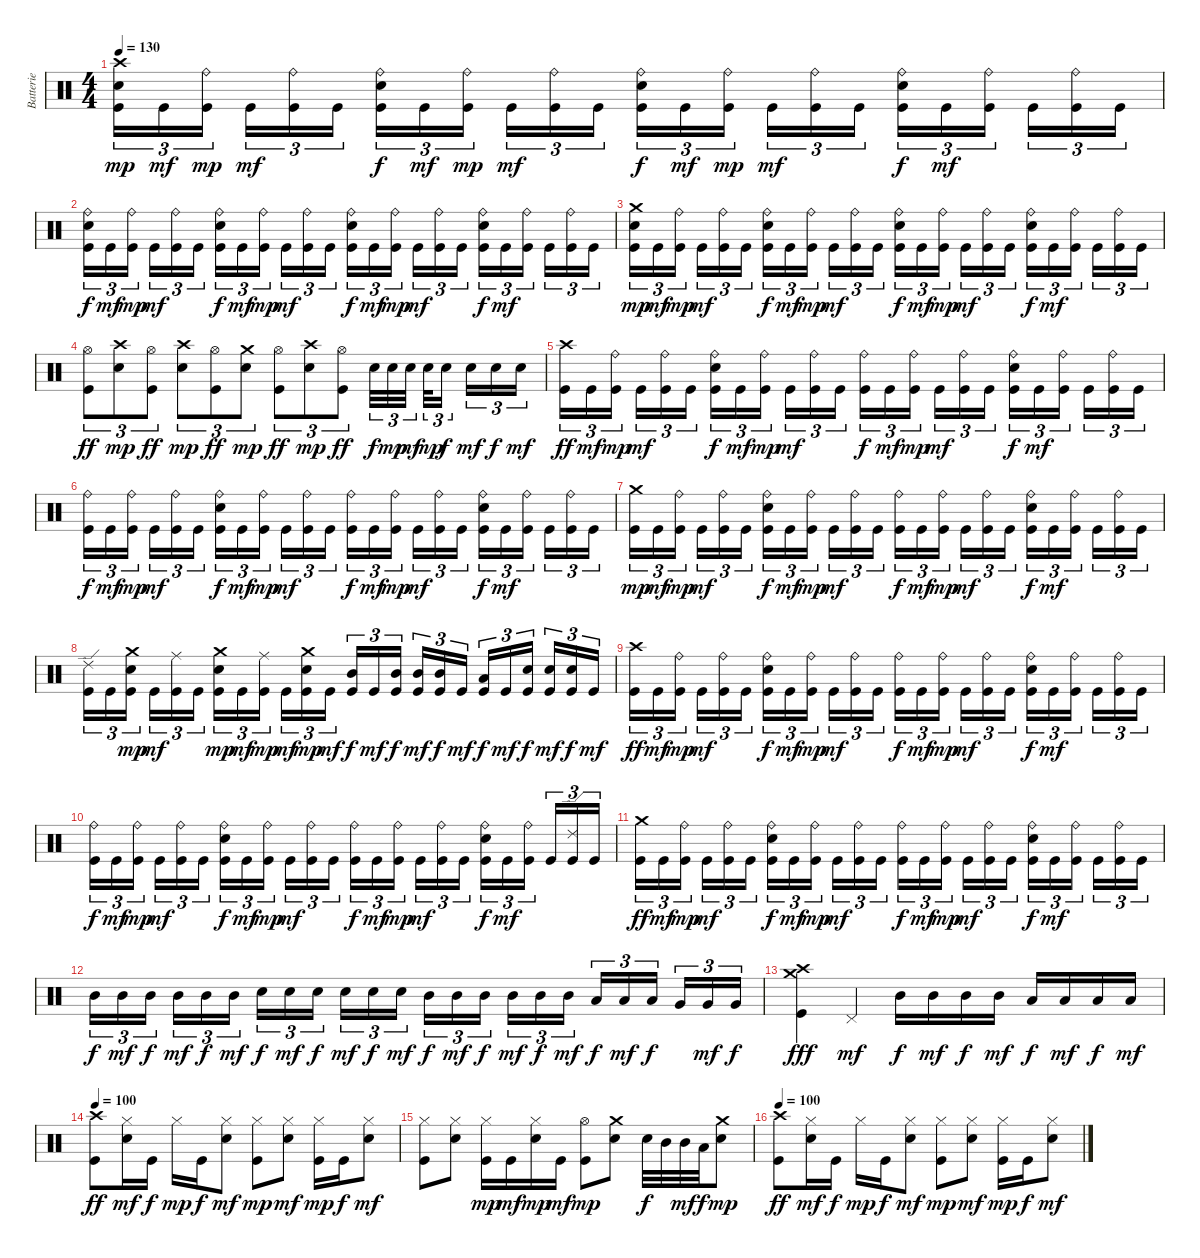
\track ("Batterie" "Batterie") {instrument percussion}
\staff {score}
\articulation defaults
\ts (4 4)
\tempo 130
\clef neutral
\ks c
("Crash high (hit)" "Snare (hit) 2" "Kick (hit)").16{tu (3 2) dy mp} "Kick (hit)".16{tu (3 2) dy mf} ("Ride (bell)" "Kick (hit)").16{tu (3 2) dy mp} "Kick (hit)".16{tu (3 2) dy mf} ("Ride (bell)" "Kick (hit)").16{tu (3 2)} "Kick (hit)".16{tu (3 2)} ("Ride (bell)" "Snare (hit) 2" "Kick (hit)").16{tu (3 2) dy f} "Kick (hit)".16{tu (3 2) dy mf} ("Ride (bell)" "Kick (hit)").16{tu (3 2) dy mp} "Kick (hit)".16{tu (3 2) dy mf} ("Ride (bell)" "Kick (hit)").16{tu (3 2)} "Kick (hit)".16{tu (3 2)} ("Ride (bell)" "Snare (hit) 2" "Kick (hit)").16{tu (3 2) dy f} "Kick (hit)".16{tu (3 2) dy mf} ("Ride (bell)" "Kick (hit)").16{tu (3 2) dy mp} "Kick (hit)".16{tu (3 2) dy mf} ("Ride (bell)" "Kick (hit)").16{tu (3 2)} "Kick (hit)".16{tu (3 2)} ("Ride (bell)" "Snare (hit) 2" "Kick (hit)").16{tu (3 2) dy f} "Kick (hit)".16{tu (3 2) dy mf} ("Ride (bell)" "Kick (hit)").16{tu (3 2)} "Kick (hit)".16{tu (3 2)} ("Ride (bell)" "Kick (hit)").16{tu (3 2)} "Kick (hit)".16{tu (3 2)} |
("Ride (bell)" "Snare (hit) 2" "Kick (hit)").16{tu (3 2) dy f} "Kick (hit)".16{tu (3 2) dy mf} ("Ride (bell)" "Kick (hit)").16{tu (3 2) dy mp} "Kick (hit)".16{tu (3 2) dy mf} ("Ride (bell)" "Kick (hit)").16{tu (3 2)} "Kick (hit)".16{tu (3 2)} ("Ride (bell)" "Snare (hit) 2" "Kick (hit)").16{tu (3 2) dy f} "Kick (hit)".16{tu (3 2) dy mf} ("Ride (bell)" "Kick (hit)").16{tu (3 2) dy mp} "Kick (hit)".16{tu (3 2) dy mf} ("Ride (bell)" "Kick (hit)").16{tu (3 2)} "Kick (hit)".16{tu (3 2)} ("Ride (bell)" "Snare (hit) 2" "Kick (hit)").16{tu (3 2) dy f} "Kick (hit)".16{tu (3 2) dy mf} ("Ride (bell)" "Kick (hit)").16{tu (3 2) dy mp} "Kick (hit)".16{tu (3 2) dy mf} ("Ride (bell)" "Kick (hit)").16{tu (3 2)} "Kick (hit)".16{tu (3 2)} ("Ride (bell)" "Snare (hit) 2" "Kick (hit)").16{tu (3 2) dy f} "Kick (hit)".16{tu (3 2) dy mf} ("Ride (bell)" "Kick (hit)").16{tu (3 2)} "Kick (hit)".16{tu (3 2)} ("Ride (bell)" "Kick (hit)").16{tu (3 2)} "Kick (hit)".16{tu (3 2)} |
("Crash medium (hit)" "Snare (hit) 2" "Kick (hit)").16{tu (3 2) dy mp} "Kick (hit)".16{tu (3 2) dy mf} ("Ride (bell)" "Kick (hit)").16{tu (3 2) dy mp} "Kick (hit)".16{tu (3 2) dy mf} ("Ride (bell)" "Kick (hit)").16{tu (3 2)} "Kick (hit)".16{tu (3 2)} ("Ride (bell)" "Snare (hit) 2" "Kick (hit)").16{tu (3 2) dy f} "Kick (hit)".16{tu (3 2) dy mf} ("Ride (bell)" "Kick (hit)").16{tu (3 2) dy mp} "Kick (hit)".16{tu (3 2) dy mf} ("Ride (bell)" "Kick (hit)").16{tu (3 2)} "Kick (hit)".16{tu (3 2)} ("Ride (bell)" "Snare (hit) 2" "Kick (hit)").16{tu (3 2) dy f} "Kick (hit)".16{tu (3 2) dy mf} ("Ride (bell)" "Kick (hit)").16{tu (3 2) dy mp} "Kick (hit)".16{tu (3 2) dy mf} ("Ride (bell)" "Kick (hit)").16{tu (3 2)} "Kick (hit)".16{tu (3 2)} ("Ride (bell)" "Snare (hit) 2" "Kick (hit)").16{tu (3 2) dy f} "Kick (hit)".16{tu (3 2) dy mf} ("Ride (bell)" "Kick (hit)").16{tu (3 2)} "Kick (hit)".16{tu (3 2)} ("Ride (bell)" "Kick (hit)").16{tu (3 2)} "Kick (hit)".16{tu (3 2)} |
("Hi-Hat (open)" "Kick (hit)").8{tu (3 2) dy ff} ("Crash high (hit)" "Snare (hit) 2").8{tu (3 2) dy mp} ("Hi-Hat (open)" "Kick (hit)").8{tu (3 2) dy ff} ("Crash high (hit)" "Snare (hit) 2").8{tu (3 2) dy mp} ("Hi-Hat (open)" "Kick (hit)").8{tu (3 2) dy ff} ("Crash medium (hit)" "Snare (hit) 2").8{tu (3 2) dy mp} ("Hi-Hat (open)" "Kick (hit)").8{tu (3 2) dy ff} ("Crash high (hit)" "Snare (hit) 2").8{tu (3 2) dy mp} ("Hi-Hat (open)" "Kick (hit)").8{tu (3 2) dy ff} "Snare (hit) 2".32{tu (3 2) dy f} "Snare (hit) 2".32{tu (3 2) dy mp} "Snare (hit) 2".32{tu (3 2) dy mf} "Snare (hit) 2".32{tu (3 2) dy mp} "Snare (hit) 2".16{tu (3 2) dy f} "Snare (hit) 2".16{tu (3 2) dy mf} "Snare (hit) 2".16{tu (3 2) dy f} "Snare (hit) 2".16{tu (3 2) dy mf} |
("Crash high (hit)" "Kick (hit)").16{tu (3 2) dy ff} "Kick (hit)".16{tu (3 2) dy mf} ("Ride (bell)" "Kick (hit)").16{tu (3 2) dy mp} "Kick (hit)".16{tu (3 2) dy mf} ("Ride (bell)" "Kick (hit)").16{tu (3 2)} "Kick (hit)".16{tu (3 2)} ("Ride (bell)" "Snare (hit) 2" "Kick (hit)").16{tu (3 2) dy f} "Kick (hit)".16{tu (3 2) dy mf} ("Ride (bell)" "Kick (hit)").16{tu (3 2) dy mp} "Kick (hit)".16{tu (3 2) dy mf} ("Ride (bell)" "Kick (hit)").16{tu (3 2)} "Kick (hit)".16{tu (3 2)} ("Ride (bell)" "Kick (hit)").16{tu (3 2) dy f} "Kick (hit)".16{tu (3 2) dy mf} ("Ride (bell)" "Kick (hit)").16{tu (3 2) dy mp} "Kick (hit)".16{tu (3 2) dy mf} ("Ride (bell)" "Kick (hit)").16{tu (3 2)} "Kick (hit)".16{tu (3 2)} ("Ride (bell)" "Snare (hit) 2" "Kick (hit)").16{tu (3 2) dy f} "Kick (hit)".16{tu (3 2) dy mf} ("Ride (bell)" "Kick (hit)").16{tu (3 2)} "Kick (hit)".16{tu (3 2)} ("Ride (bell)" "Kick (hit)").16{tu (3 2)} "Kick (hit)".16{tu (3 2)} |
("Ride (bell)" "Kick (hit)").16{tu (3 2) dy f} "Kick (hit)".16{tu (3 2) dy mf} ("Ride (bell)" "Kick (hit)").16{tu (3 2) dy mp} "Kick (hit)".16{tu (3 2) dy mf} ("Ride (bell)" "Kick (hit)").16{tu (3 2)} "Kick (hit)".16{tu (3 2)} ("Ride (bell)" "Snare (hit) 2" "Kick (hit)").16{tu (3 2) dy f} "Kick (hit)".16{tu (3 2) dy mf} ("Ride (bell)" "Kick (hit)").16{tu (3 2) dy mp} "Kick (hit)".16{tu (3 2) dy mf} ("Ride (bell)" "Kick (hit)").16{tu (3 2)} "Kick (hit)".16{tu (3 2)} ("Ride (bell)" "Kick (hit)").16{tu (3 2) dy f} "Kick (hit)".16{tu (3 2) dy mf} ("Ride (bell)" "Kick (hit)").16{tu (3 2) dy mp} "Kick (hit)".16{tu (3 2) dy mf} ("Ride (bell)" "Kick (hit)").16{tu (3 2)} "Kick (hit)".16{tu (3 2)} ("Ride (bell)" "Snare (hit) 2" "Kick (hit)").16{tu (3 2) dy f} "Kick (hit)".16{tu (3 2) dy mf} ("Ride (bell)" "Kick (hit)").16{tu (3 2)} "Kick (hit)".16{tu (3 2)} ("Ride (bell)" "Kick (hit)").16{tu (3 2)} "Kick (hit)".16{tu (3 2)} |
("Crash medium (hit)" "Kick (hit)").16{tu (3 2) dy mp} "Kick (hit)".16{tu (3 2) dy mf} ("Ride (bell)" "Kick (hit)").16{tu (3 2) dy mp} "Kick (hit)".16{tu (3 2) dy mf} ("Ride (bell)" "Kick (hit)").16{tu (3 2)} "Kick (hit)".16{tu (3 2)} ("Ride (bell)" "Snare (hit) 2" "Kick (hit)").16{tu (3 2) dy f} "Kick (hit)".16{tu (3 2) dy mf} ("Ride (bell)" "Kick (hit)").16{tu (3 2) dy mp} "Kick (hit)".16{tu (3 2) dy mf} ("Ride (bell)" "Kick (hit)").16{tu (3 2)} "Kick (hit)".16{tu (3 2)} ("Ride (bell)" "Kick (hit)").16{tu (3 2) dy f} "Kick (hit)".16{tu (3 2) dy mf} ("Ride (bell)" "Kick (hit)").16{tu (3 2) dy mp} "Kick (hit)".16{tu (3 2) dy mf} ("Ride (bell)" "Kick (hit)").16{tu (3 2)} "Kick (hit)".16{tu (3 2)} ("Ride (bell)" "Snare (hit) 2" "Kick (hit)").16{tu (3 2) dy f} "Kick (hit)".16{tu (3 2) dy mf} ("Ride (bell)" "Kick (hit)").16{tu (3 2)} "Kick (hit)".16{tu (3 2)} ("Ride (bell)" "Kick (hit)").16{tu (3 2)} "Kick (hit)".16{tu (3 2)} |
("Ride (edge) 2" "Kick (hit)").16{tu (3 2)} "Kick (hit)".16{tu (3 2)} ("Crash medium (hit)" "Snare (hit) 2" "Kick (hit)").16{tu (3 2) dy mp} "Kick (hit)".16{tu (3 2) dy mf} ("Ride (middle)" "Kick (hit)").16{tu (3 2)} "Kick (hit)".16{tu (3 2)} ("Crash medium (hit)" "Snare (hit) 2" "Kick (hit)").16{tu (3 2) dy mp} "Kick (hit)".16{tu (3 2) dy mf} ("Ride (middle)" "Kick (hit)").16{tu (3 2) dy mp} "Kick (hit)".16{tu (3 2) dy mf} ("Crash medium (hit)" "Snare (hit) 2" "Kick (hit)").16{tu (3 2) dy mp} "Kick (hit)".16{tu (3 2) dy mf} ("Mid Tom (hit)" "Kick (hit)").16{tu (3 2) dy f} "Kick (hit)".16{tu (3 2) dy mf} ("Mid Tom (hit)" "Kick (hit)").16{tu (3 2) dy f} ("Mid Tom (hit)" "Kick (hit)").16{tu (3 2) dy mf} ("Mid Tom (hit)" "Kick (hit)").16{tu (3 2) dy f} "Kick (hit)".16{tu (3 2) dy mf} ("Low Tom (hit)" "Kick (hit)").16{tu (3 2) dy f} "Kick (hit)".16{tu (3 2) dy mf} ("Snare (hit) 2" "Kick (hit)").16{tu (3 2) dy f} ("Snare (hit) 2" "Kick (hit)").16{tu (3 2) dy mf} ("Snare (hit) 2" "Kick (hit)").16{tu (3 2) dy f} "Kick (hit)".16{tu (3 2) dy mf} |
("Crash high (hit)" "Kick (hit)").16{tu (3 2) dy ff} "Kick (hit)".16{tu (3 2) dy mf} ("Ride (bell)" "Kick (hit)").16{tu (3 2) dy mp} "Kick (hit)".16{tu (3 2) dy mf} ("Ride (bell)" "Kick (hit)").16{tu (3 2)} "Kick (hit)".16{tu (3 2)} ("Ride (bell)" "Snare (hit) 2" "Kick (hit)").16{tu (3 2) dy f} "Kick (hit)".16{tu (3 2) dy mf} ("Ride (bell)" "Kick (hit)").16{tu (3 2) dy mp} "Kick (hit)".16{tu (3 2) dy mf} ("Ride (bell)" "Kick (hit)").16{tu (3 2)} "Kick (hit)".16{tu (3 2)} ("Ride (bell)" "Kick (hit)").16{tu (3 2) dy f} "Kick (hit)".16{tu (3 2) dy mf} ("Ride (bell)" "Kick (hit)").16{tu (3 2) dy mp} "Kick (hit)".16{tu (3 2) dy mf} ("Ride (bell)" "Kick (hit)").16{tu (3 2)} "Kick (hit)".16{tu (3 2)} ("Ride (bell)" "Snare (hit) 2" "Kick (hit)").16{tu (3 2) dy f} "Kick (hit)".16{tu (3 2) dy mf} ("Ride (bell)" "Kick (hit)").16{tu (3 2)} "Kick (hit)".16{tu (3 2)} ("Ride (bell)" "Kick (hit)").16{tu (3 2)} "Kick (hit)".16{tu (3 2)} |
("Ride (bell)" "Kick (hit)").16{tu (3 2) dy f} "Kick (hit)".16{tu (3 2) dy mf} ("Ride (bell)" "Kick (hit)").16{tu (3 2) dy mp} "Kick (hit)".16{tu (3 2) dy mf} ("Ride (bell)" "Kick (hit)").16{tu (3 2)} "Kick (hit)".16{tu (3 2)} ("Ride (bell)" "Snare (hit) 2" "Kick (hit)").16{tu (3 2) dy f} "Kick (hit)".16{tu (3 2) dy mf} ("Ride (bell)" "Kick (hit)").16{tu (3 2) dy mp} "Kick (hit)".16{tu (3 2) dy mf} ("Ride (bell)" "Kick (hit)").16{tu (3 2)} "Kick (hit)".16{tu (3 2)} ("Ride (bell)" "Kick (hit)").16{tu (3 2) dy f} "Kick (hit)".16{tu (3 2) dy mf} ("Ride (bell)" "Kick (hit)").16{tu (3 2) dy mp} "Kick (hit)".16{tu (3 2) dy mf} ("Ride (bell)" "Kick (hit)").16{tu (3 2)} "Kick (hit)".16{tu (3 2)} ("Ride (bell)" "Snare (hit) 2" "Kick (hit)").16{tu (3 2) dy f} "Kick (hit)".16{tu (3 2) dy mf} ("Ride (bell)" "Kick (hit)").16{tu (3 2)} "Kick (hit)".16{tu (3 2)} ("Ride (edge) 2" "Kick (hit)").16{tu (3 2)} "Kick (hit)".16{tu (3 2)} |
("Crash medium (hit)" "Kick (hit)").16{tu (3 2) dy ff} "Kick (hit)".16{tu (3 2) dy mf} ("Ride (bell)" "Kick (hit)").16{tu (3 2) dy mp} "Kick (hit)".16{tu (3 2) dy mf} ("Ride (bell)" "Kick (hit)").16{tu (3 2)} "Kick (hit)".16{tu (3 2)} ("Ride (bell)" "Snare (hit) 2" "Kick (hit)").16{tu (3 2) dy f} "Kick (hit)".16{tu (3 2) dy mf} ("Ride (bell)" "Kick (hit)").16{tu (3 2) dy mp} "Kick (hit)".16{tu (3 2) dy mf} ("Ride (bell)" "Kick (hit)").16{tu (3 2)} "Kick (hit)".16{tu (3 2)} ("Ride (bell)" "Kick (hit)").16{tu (3 2) dy f} "Kick (hit)".16{tu (3 2) dy mf} ("Ride (bell)" "Kick (hit)").16{tu (3 2) dy mp} "Kick (hit)".16{tu (3 2) dy mf} ("Ride (bell)" "Kick (hit)").16{tu (3 2)} "Kick (hit)".16{tu (3 2)} ("Ride (bell)" "Snare (hit) 2" "Kick (hit)").16{tu (3 2) dy f} "Kick (hit)".16{tu (3 2) dy mf} ("Ride (bell)" "Kick (hit)").16{tu (3 2)} "Kick (hit)".16{tu (3 2)} ("Ride (bell)" "Kick (hit)").16{tu (3 2)} "Kick (hit)".16{tu (3 2)} |
"Mid Tom (hit)".16{tu (3 2) dy f} "Mid Tom (hit)".16{tu (3 2) dy mf} "Mid Tom (hit)".16{tu (3 2) dy f} "Mid Tom (hit)".16{tu (3 2) dy mf} "Mid Tom (hit)".16{tu (3 2) dy f} "Mid Tom (hit)".16{tu (3 2) dy mf} "Snare (hit) 2".16{tu (3 2) dy f} "Snare (hit) 2".16{tu (3 2) dy mf} "Snare (hit) 2".16{tu (3 2) dy f} "Snare (hit) 2".16{tu (3 2) dy mf} "Snare (hit) 2".16{tu (3 2) dy f} "Snare (hit) 2".16{tu (3 2) dy mf} "Mid Tom (hit)".16{tu (3 2) dy f} "Mid Tom (hit)".16{tu (3 2) dy mf} "Mid Tom (hit)".16{tu (3 2) dy f} "Mid Tom (hit)".16{tu (3 2) dy mf} "Mid Tom (hit)".16{tu (3 2) dy f} "Mid Tom (hit)".16{tu (3 2) dy mf} "Low Tom (hit)".16{tu (3 2) dy f} "Low Tom (hit)".16{tu (3 2) dy mf} "Low Tom (hit)".16{tu (3 2) dy f} "Very Low Tom (hit)".16{tu (3 2)} "Very Low Tom (hit)".16{tu (3 2) dy mf} "Very Low Tom (hit)".16{tu (3 2) dy f} |
("Crash medium (hit)" "Crash high (hit)" "Kick (hit)").4{dy fff} "Pedal Hi-Hat (hit)".4{dy mf} "Mid Tom (hit)".16{dy f} "Mid Tom (hit)".16{dy mf} "Mid Tom (hit)".16{dy f} "Mid Tom (hit)".16{dy mf} "Low Tom (hit)".16{dy f} "Low Tom (hit)".16{dy mf} "Low Tom (hit)".16{dy f} "Low Tom (hit)".16{dy mf} |
\tempo 100
("Crash high (hit)" "Kick (hit)").8{dy ff} ("Hi-Hat (closed)" "Snare (hit) 2").16{dy mf} "Kick (hit)".16{dy f} "Hi-Hat (closed)".16{dy mp} "Kick (hit)".16{dy f} ("Hi-Hat (closed)" "Snare (hit) 2").8{dy mf} ("Hi-Hat (closed)" "Kick (hit)").8{dy mp} ("Hi-Hat (closed)" "Snare (hit) 2").8{dy mf} ("Hi-Hat (closed)" "Kick (hit)").16{dy mp} "Kick (hit)".16{dy f} ("Hi-Hat (closed)" "Snare (hit) 2").8{dy mf} |
("Hi-Hat (closed)" "Kick (hit)").8 ("Hi-Hat (closed)" "Snare (hit) 2").8 ("Hi-Hat (closed)" "Kick (hit)").16{dy mp} "Kick (hit)".16{dy mf} ("Hi-Hat (closed)" "Snare (hit) 2").16{dy mp} "Kick (hit)".16{dy mf} ("Hi-Hat (open)" "Kick (hit)").8{dy mp} ("Crash medium (hit)" "Snare (hit) 2").8 "Snare (hit) 2".32{dy f} "Mid Tom (hit)".32 "Mid Tom (hit)".32{dy mf} "Low Tom (hit)".32{dy f} ("Crash medium (hit)" "Snare (hit) 2").8{dy mp} |
\tempo 100
("Crash high (hit)" "Kick (hit)").8{dy ff} ("Hi-Hat (closed)" "Snare (hit) 2").16{dy mf} "Kick (hit)".16{dy f} "Hi-Hat (closed)".16{dy mp} "Kick (hit)".16{dy f} ("Hi-Hat (closed)" "Snare (hit) 2").8{dy mf} ("Hi-Hat (closed)" "Kick (hit)").8{dy mp} ("Hi-Hat (closed)" "Snare (hit) 2").8{dy mf} ("Hi-Hat (closed)" "Kick (hit)").16{dy mp} "Kick (hit)".16{dy f} ("Hi-Hat (closed)" "Snare (hit) 2").8{dy mf}
